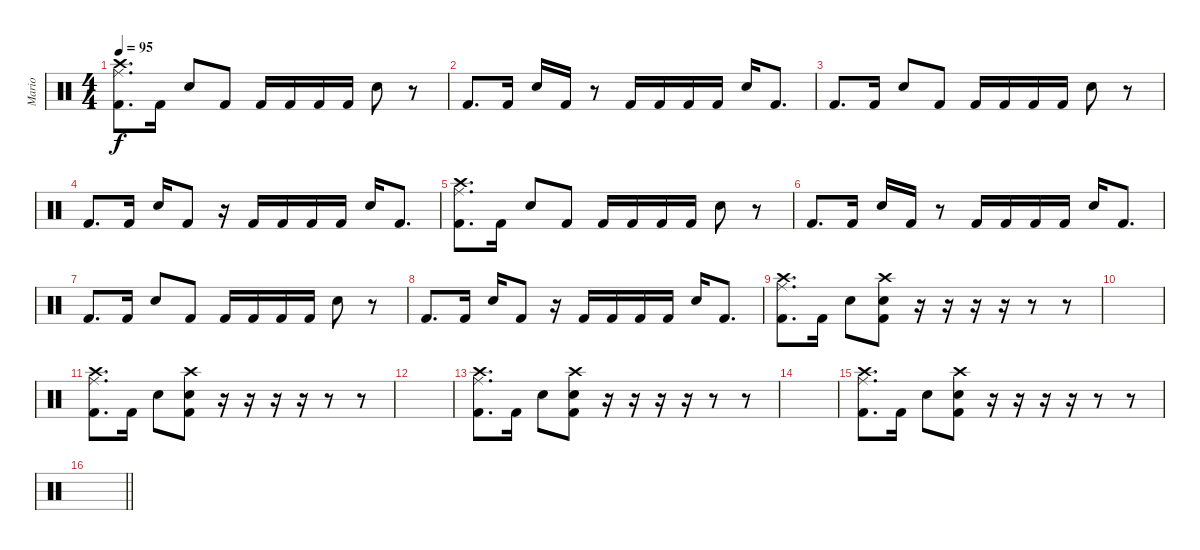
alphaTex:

\track ("Mario" "Mario") {instrument percussion}
\staff {score}
\articulation defaults
\ts (4 4)
\tempo 95
\clef neutral
\ks c
("Crash high (hit)" "Ride (middle)" "Kick (hit) 2").8{d dy f} "Kick (hit) 2".16 "Electric Snare (hit)".8 "Kick (hit) 2".8 "Kick (hit) 2".16 "Kick (hit) 2".16 "Kick (hit) 2".16 "Kick (hit) 2".16 "Electric Snare (hit)".8 r.8 |
"Kick (hit) 2".8{d} "Kick (hit) 2".16 "Electric Snare (hit)".16 "Kick (hit) 2".16 r.8 "Kick (hit) 2".16 "Kick (hit) 2".16 "Kick (hit) 2".16 "Kick (hit) 2".16 "Electric Snare (hit)".16 "Kick (hit) 2".8{d} |
"Kick (hit) 2".8{d} "Kick (hit) 2".16 "Electric Snare (hit)".8 "Kick (hit) 2".8 "Kick (hit) 2".16 "Kick (hit) 2".16 "Kick (hit) 2".16 "Kick (hit) 2".16 "Electric Snare (hit)".8 r.8 |
"Kick (hit) 2".8{d} "Kick (hit) 2".16 "Electric Snare (hit)".16 "Kick (hit) 2".8 r.16 "Kick (hit) 2".16 "Kick (hit) 2".16 "Kick (hit) 2".16 "Kick (hit) 2".16 "Electric Snare (hit)".16 "Kick (hit) 2".8{d} |
("Crash high (hit)" "Ride (middle)" "Kick (hit) 2").8{d} "Kick (hit) 2".16 "Electric Snare (hit)".8 "Kick (hit) 2".8 "Kick (hit) 2".16 "Kick (hit) 2".16 "Kick (hit) 2".16 "Kick (hit) 2".16 "Electric Snare (hit)".8 r.8 |
"Kick (hit) 2".8{d} "Kick (hit) 2".16 "Electric Snare (hit)".16 "Kick (hit) 2".16 r.8 "Kick (hit) 2".16 "Kick (hit) 2".16 "Kick (hit) 2".16 "Kick (hit) 2".16 "Electric Snare (hit)".16 "Kick (hit) 2".8{d} |
"Kick (hit) 2".8{d} "Kick (hit) 2".16 "Electric Snare (hit)".8 "Kick (hit) 2".8 "Kick (hit) 2".16 "Kick (hit) 2".16 "Kick (hit) 2".16 "Kick (hit) 2".16 "Electric Snare (hit)".8 r.8 |
"Kick (hit) 2".8{d} "Kick (hit) 2".16 "Electric Snare (hit)".16 "Kick (hit) 2".8 r.16 "Kick (hit) 2".16 "Kick (hit) 2".16 "Kick (hit) 2".16 "Kick (hit) 2".16 "Electric Snare (hit)".16 "Kick (hit) 2".8{d} |
("Crash high (hit)" "Ride (middle)" "Kick (hit) 2").8{d} "Kick (hit) 2".16 "Electric Snare (hit)".8 ("Crash high (hit)" "Electric Snare (hit)" "Kick (hit) 2").8 r.16 r.16 r.16 r.16 r.8 r.8 |
|
("Crash high (hit)" "Ride (middle)" "Kick (hit) 2").8{d} "Kick (hit) 2".16 "Electric Snare (hit)".8 ("Crash high (hit)" "Electric Snare (hit)" "Kick (hit) 2").8 r.16 r.16 r.16 r.16 r.8 r.8 |
|
("Crash high (hit)" "Ride (middle)" "Kick (hit) 2").8{d} "Kick (hit) 2".16 "Electric Snare (hit)".8 ("Crash high (hit)" "Electric Snare (hit)" "Kick (hit) 2").8 r.16 r.16 r.16 r.16 r.8 r.8 |
|
("Crash high (hit)" "Ride (middle)" "Kick (hit) 2").8{d} "Kick (hit) 2".16 "Electric Snare (hit)".8 ("Crash high (hit)" "Electric Snare (hit)" "Kick (hit) 2").8 r.16 r.16 r.16 r.16 r.8 r.8 |
\barLineRight lightlight
